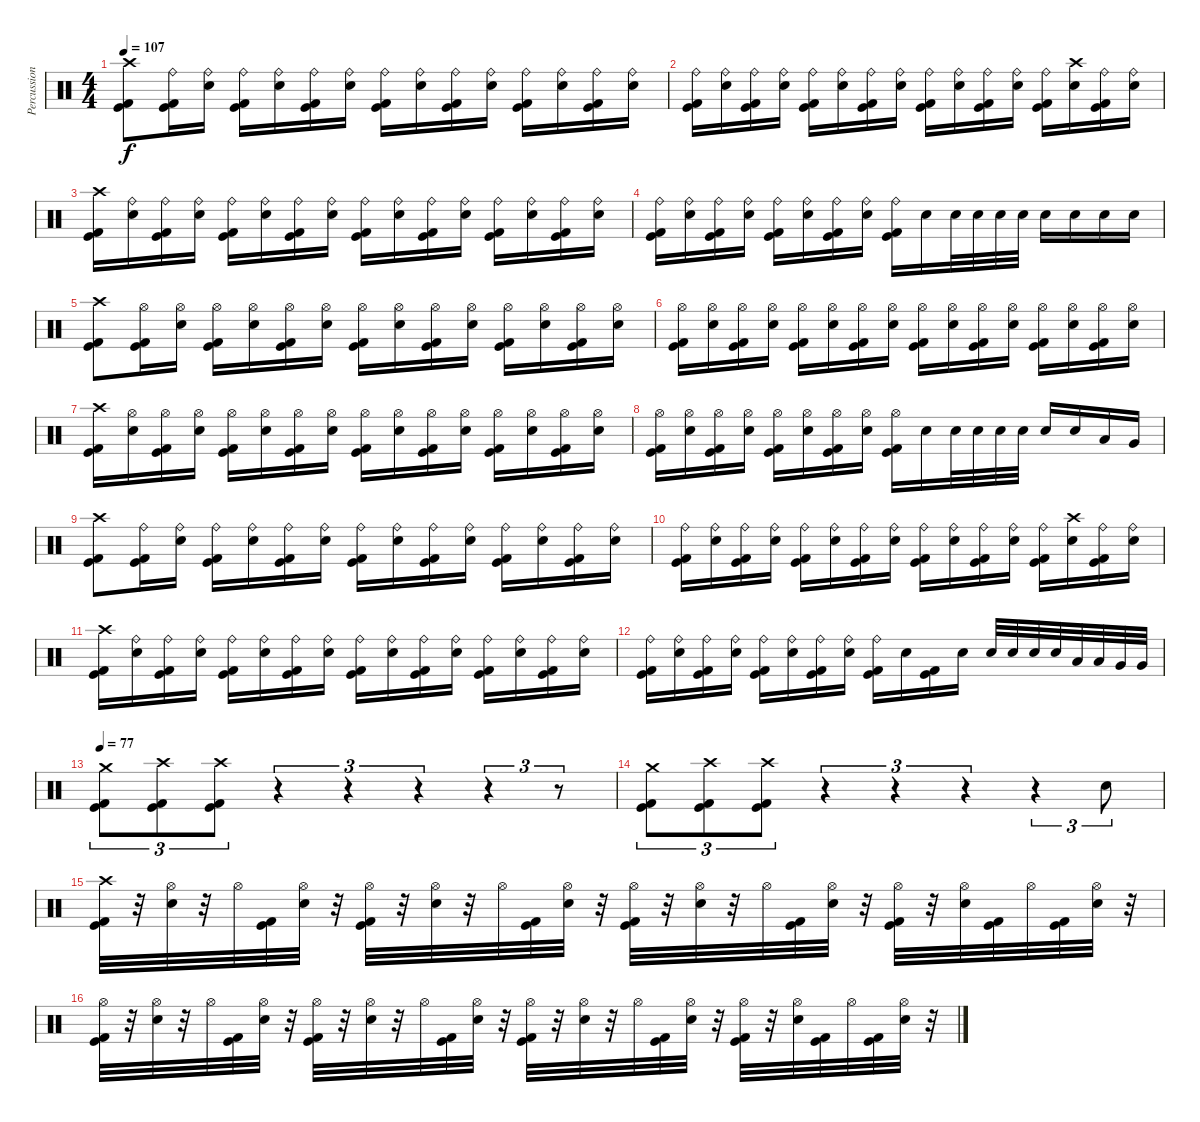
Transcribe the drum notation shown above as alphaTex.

\track ("Percussion" "Percussion") {instrument percussion}
\staff {score}
\articulation defaults
\ts (4 4)
\tempo 107
\clef neutral
\ks c
("Crash high (hit)" "Kick (hit)" "Kick (hit) 2").8{dy f} ("Ride (bell)" "Kick (hit)" "Kick (hit) 2").16 ("Ride (bell)" "Electric Snare (hit)").16 ("Ride (bell)" "Kick (hit)" "Kick (hit) 2").16 ("Ride (bell)" "Electric Snare (hit)").16 ("Ride (bell)" "Kick (hit)" "Kick (hit) 2").16 ("Ride (bell)" "Electric Snare (hit)").16 ("Ride (bell)" "Kick (hit)" "Kick (hit) 2").16 ("Ride (bell)" "Electric Snare (hit)").16 ("Ride (bell)" "Kick (hit)" "Kick (hit) 2").16 ("Ride (bell)" "Electric Snare (hit)").16 ("Ride (bell)" "Kick (hit)" "Kick (hit) 2").16 ("Ride (bell)" "Electric Snare (hit)").16 ("Ride (bell)" "Kick (hit)" "Kick (hit) 2").16 ("Ride (bell)" "Electric Snare (hit)").16 |
("Ride (bell)" "Kick (hit)" "Kick (hit) 2").16 ("Ride (bell)" "Electric Snare (hit)").16 ("Ride (bell)" "Kick (hit)" "Kick (hit) 2").16 ("Ride (bell)" "Electric Snare (hit)").16 ("Ride (bell)" "Kick (hit)" "Kick (hit) 2").16 ("Ride (bell)" "Electric Snare (hit)").16 ("Ride (bell)" "Kick (hit)" "Kick (hit) 2").16 ("Ride (bell)" "Electric Snare (hit)").16 ("Ride (bell)" "Kick (hit)" "Kick (hit) 2").16 ("Ride (bell)" "Electric Snare (hit)").16 ("Ride (bell)" "Kick (hit)" "Kick (hit) 2").16 ("Ride (bell)" "Electric Snare (hit)").16 ("Ride (bell)" "Kick (hit)" "Kick (hit) 2").16 ("Crash high (hit)" "Electric Snare (hit)").16 ("Ride (bell)" "Kick (hit)" "Kick (hit) 2").16 ("Ride (bell)" "Electric Snare (hit)").16 |
("Crash high (hit)" "Kick (hit)" "Kick (hit) 2").16 ("Ride (bell)" "Electric Snare (hit)").16 ("Ride (bell)" "Kick (hit)" "Kick (hit) 2").16 ("Ride (bell)" "Electric Snare (hit)").16 ("Ride (bell)" "Kick (hit)" "Kick (hit) 2").16 ("Ride (bell)" "Electric Snare (hit)").16 ("Ride (bell)" "Kick (hit)" "Kick (hit) 2").16 ("Ride (bell)" "Electric Snare (hit)").16 ("Ride (bell)" "Kick (hit)" "Kick (hit) 2").16 ("Ride (bell)" "Electric Snare (hit)").16 ("Ride (bell)" "Kick (hit)" "Kick (hit) 2").16 ("Ride (bell)" "Electric Snare (hit)").16 ("Ride (bell)" "Kick (hit)" "Kick (hit) 2").16 ("Ride (bell)" "Electric Snare (hit)").16 ("Ride (bell)" "Kick (hit)" "Kick (hit) 2").16 ("Ride (bell)" "Electric Snare (hit)").16 |
("Ride (bell)" "Kick (hit)" "Kick (hit) 2").16 ("Ride (bell)" "Electric Snare (hit)").16 ("Ride (bell)" "Kick (hit)" "Kick (hit) 2").16 ("Ride (bell)" "Electric Snare (hit)").16 ("Ride (bell)" "Kick (hit)" "Kick (hit) 2").16 ("Ride (bell)" "Electric Snare (hit)").16 ("Ride (bell)" "Kick (hit)" "Kick (hit) 2").16 ("Ride (bell)" "Electric Snare (hit)").16 ("Ride (bell)" "Kick (hit)" "Kick (hit) 2").16 "Electric Snare (hit)".16 "Electric Snare (hit)".32 "Electric Snare (hit)".32 "Electric Snare (hit)".32 "Electric Snare (hit)".32 "Electric Snare (hit)".16 "Electric Snare (hit)".16 "Electric Snare (hit)".16 "Electric Snare (hit)".16 |
("Crash high (hit)" "Kick (hit)" "Kick (hit) 2").8 ("Hi-Hat (open)" "Kick (hit)" "Kick (hit) 2").16 ("Hi-Hat (open)" "Electric Snare (hit)").16 ("Hi-Hat (open)" "Kick (hit)" "Kick (hit) 2").16 ("Hi-Hat (open)" "Electric Snare (hit)").16 ("Hi-Hat (open)" "Kick (hit)" "Kick (hit) 2").16 ("Hi-Hat (open)" "Electric Snare (hit)").16 ("Hi-Hat (open)" "Kick (hit)" "Kick (hit) 2").16 ("Hi-Hat (open)" "Electric Snare (hit)").16 ("Hi-Hat (open)" "Kick (hit)" "Kick (hit) 2").16 ("Hi-Hat (open)" "Electric Snare (hit)").16 ("Hi-Hat (open)" "Kick (hit)" "Kick (hit) 2").16 ("Hi-Hat (open)" "Electric Snare (hit)").16 ("Hi-Hat (open)" "Kick (hit)" "Kick (hit) 2").16 ("Hi-Hat (open)" "Electric Snare (hit)").16 |
("Hi-Hat (open)" "Kick (hit)" "Kick (hit) 2").16 ("Hi-Hat (open)" "Electric Snare (hit)").16 ("Hi-Hat (open)" "Kick (hit)" "Kick (hit) 2").16 ("Hi-Hat (open)" "Electric Snare (hit)").16 ("Hi-Hat (open)" "Kick (hit)" "Kick (hit) 2").16 ("Hi-Hat (open)" "Electric Snare (hit)").16 ("Hi-Hat (open)" "Kick (hit)" "Kick (hit) 2").16 ("Hi-Hat (open)" "Electric Snare (hit)").16 ("Hi-Hat (open)" "Kick (hit)" "Kick (hit) 2").16 ("Hi-Hat (open)" "Electric Snare (hit)").16 ("Hi-Hat (open)" "Kick (hit)" "Kick (hit) 2").16 ("Hi-Hat (open)" "Electric Snare (hit)").16 ("Hi-Hat (open)" "Kick (hit)" "Kick (hit) 2").16 ("Hi-Hat (open)" "Electric Snare (hit)").16 ("Hi-Hat (open)" "Kick (hit)" "Kick (hit) 2").16 ("Hi-Hat (open)" "Electric Snare (hit)").16 |
("Crash high (hit)" "Kick (hit)" "Kick (hit) 2").16 ("Hi-Hat (open)" "Electric Snare (hit)").16 ("Hi-Hat (open)" "Kick (hit)" "Kick (hit) 2").16 ("Hi-Hat (open)" "Electric Snare (hit)").16 ("Hi-Hat (open)" "Kick (hit)" "Kick (hit) 2").16 ("Hi-Hat (open)" "Electric Snare (hit)").16 ("Hi-Hat (open)" "Kick (hit)" "Kick (hit) 2").16 ("Hi-Hat (open)" "Electric Snare (hit)").16 ("Hi-Hat (open)" "Kick (hit)" "Kick (hit) 2").16 ("Hi-Hat (open)" "Electric Snare (hit)").16 ("Hi-Hat (open)" "Kick (hit)" "Kick (hit) 2").16 ("Hi-Hat (open)" "Electric Snare (hit)").16 ("Hi-Hat (open)" "Kick (hit)" "Kick (hit) 2").16 ("Hi-Hat (open)" "Electric Snare (hit)").16 ("Hi-Hat (open)" "Kick (hit)" "Kick (hit) 2").16 ("Hi-Hat (open)" "Electric Snare (hit)").16 |
("Hi-Hat (open)" "Kick (hit)" "Kick (hit) 2").16 ("Hi-Hat (open)" "Electric Snare (hit)").16 ("Hi-Hat (open)" "Kick (hit)" "Kick (hit) 2").16 ("Hi-Hat (open)" "Electric Snare (hit)").16 ("Hi-Hat (open)" "Kick (hit)" "Kick (hit) 2").16 ("Hi-Hat (open)" "Electric Snare (hit)").16 ("Hi-Hat (open)" "Kick (hit)" "Kick (hit) 2").16 ("Hi-Hat (open)" "Electric Snare (hit)").16 ("Hi-Hat (open)" "Kick (hit)" "Kick (hit) 2").16 "Electric Snare (hit)".16 "Electric Snare (hit)".32 "Electric Snare (hit)".32 "Electric Snare (hit)".32 "Electric Snare (hit)".32 "Electric Snare (hit)".16 "Electric Snare (hit)".16 "Low Tom (hit)".16 "Very Low Tom (hit)".16 |
("Crash high (hit)" "Kick (hit)" "Kick (hit) 2").8 ("Ride (bell)" "Kick (hit)" "Kick (hit) 2").16 ("Ride (bell)" "Electric Snare (hit)").16 ("Ride (bell)" "Kick (hit)" "Kick (hit) 2").16 ("Ride (bell)" "Electric Snare (hit)").16 ("Ride (bell)" "Kick (hit)" "Kick (hit) 2").16 ("Ride (bell)" "Electric Snare (hit)").16 ("Ride (bell)" "Kick (hit)" "Kick (hit) 2").16 ("Ride (bell)" "Electric Snare (hit)").16 ("Ride (bell)" "Kick (hit)" "Kick (hit) 2").16 ("Ride (bell)" "Electric Snare (hit)").16 ("Ride (bell)" "Kick (hit)" "Kick (hit) 2").16 ("Ride (bell)" "Electric Snare (hit)").16 ("Ride (bell)" "Kick (hit)" "Kick (hit) 2").16 ("Ride (bell)" "Electric Snare (hit)").16 |
("Ride (bell)" "Kick (hit)" "Kick (hit) 2").16 ("Ride (bell)" "Electric Snare (hit)").16 ("Ride (bell)" "Kick (hit)" "Kick (hit) 2").16 ("Ride (bell)" "Electric Snare (hit)").16 ("Ride (bell)" "Kick (hit)" "Kick (hit) 2").16 ("Ride (bell)" "Electric Snare (hit)").16 ("Ride (bell)" "Kick (hit)" "Kick (hit) 2").16 ("Ride (bell)" "Electric Snare (hit)").16 ("Ride (bell)" "Kick (hit)" "Kick (hit) 2").16 ("Ride (bell)" "Electric Snare (hit)").16 ("Ride (bell)" "Kick (hit)" "Kick (hit) 2").16 ("Ride (bell)" "Electric Snare (hit)").16 ("Ride (bell)" "Kick (hit)" "Kick (hit) 2").16 ("Crash high (hit)" "Electric Snare (hit)").16 ("Ride (bell)" "Kick (hit)" "Kick (hit) 2").16 ("Ride (bell)" "Electric Snare (hit)").16 |
("Crash high (hit)" "Kick (hit)" "Kick (hit) 2").16 ("Ride (bell)" "Electric Snare (hit)").16 ("Ride (bell)" "Kick (hit)" "Kick (hit) 2").16 ("Ride (bell)" "Electric Snare (hit)").16 ("Ride (bell)" "Kick (hit)" "Kick (hit) 2").16 ("Ride (bell)" "Electric Snare (hit)").16 ("Ride (bell)" "Kick (hit)" "Kick (hit) 2").16 ("Ride (bell)" "Electric Snare (hit)").16 ("Ride (bell)" "Kick (hit)" "Kick (hit) 2").16 ("Ride (bell)" "Electric Snare (hit)").16 ("Ride (bell)" "Kick (hit)" "Kick (hit) 2").16 ("Ride (bell)" "Electric Snare (hit)").16 ("Ride (bell)" "Kick (hit)" "Kick (hit) 2").16 ("Ride (bell)" "Electric Snare (hit)").16 ("Ride (bell)" "Kick (hit)" "Kick (hit) 2").16 ("Ride (bell)" "Electric Snare (hit)").16 |
("Ride (bell)" "Kick (hit)" "Kick (hit) 2").16 ("Ride (bell)" "Electric Snare (hit)").16 ("Ride (bell)" "Kick (hit)" "Kick (hit) 2").16 ("Ride (bell)" "Electric Snare (hit)").16 ("Ride (bell)" "Kick (hit)" "Kick (hit) 2").16 ("Ride (bell)" "Electric Snare (hit)").16 ("Ride (bell)" "Kick (hit)" "Kick (hit) 2").16 ("Ride (bell)" "Electric Snare (hit)").16 ("Ride (bell)" "Kick (hit)" "Kick (hit) 2").16 "Electric Snare (hit)".16 ("Kick (hit)" "Kick (hit) 2").16 "Electric Snare (hit)".16 "Electric Snare (hit)".32 "Electric Snare (hit)".32 "Electric Snare (hit)".32 "Electric Snare (hit)".32 "Low Tom (hit)".32 "Low Tom (hit)".32 "Very Low Tom (hit)".32 "Very Low Tom (hit)".32 |
\tempo 77
("Crash medium (hit)" "Kick (hit)" "Kick (hit) 2").8{tu (3 2)} ("Crash high (hit)" "Kick (hit)" "Kick (hit) 2").8{tu (3 2)} ("Crash high (hit)" "Kick (hit)" "Kick (hit) 2").8{tu (3 2)} r.4{tu (3 2)} r.4{tu (3 2)} r.4{tu (3 2)} r.4{tu (3 2)} r.8{tu (3 2)} |
("Crash medium (hit)" "Kick (hit)" "Kick (hit) 2").8{tu (3 2)} ("Crash high (hit)" "Kick (hit)" "Kick (hit) 2").8{tu (3 2)} ("Crash high (hit)" "Kick (hit)" "Kick (hit) 2").8{tu (3 2)} r.4{tu (3 2)} r.4{tu (3 2)} r.4{tu (3 2)} r.4{tu (3 2)} "Electric Snare (hit)".8{tu (3 2)} |
("Crash high (hit)" "Kick (hit)" "Kick (hit) 2").32 r.32 ("Hi-Hat (open)" "Electric Snare (hit)").32 r.32 "Hi-Hat (open)".32 ("Kick (hit)" "Kick (hit) 2").32 ("Hi-Hat (open)" "Electric Snare (hit)").32 r.32 ("Hi-Hat (open)" "Kick (hit)" "Kick (hit) 2").32 r.32 ("Hi-Hat (open)" "Electric Snare (hit)").32 r.32 "Hi-Hat (open)".32 ("Kick (hit)" "Kick (hit) 2").32 ("Hi-Hat (open)" "Electric Snare (hit)").32 r.32 ("Hi-Hat (open)" "Kick (hit)" "Kick (hit) 2").32 r.32 ("Hi-Hat (open)" "Electric Snare (hit)").32 r.32 "Hi-Hat (open)".32 ("Kick (hit)" "Kick (hit) 2").32 ("Hi-Hat (open)" "Electric Snare (hit)").32 r.32 ("Hi-Hat (open)" "Kick (hit)" "Kick (hit) 2").32 r.32 ("Hi-Hat (open)" "Electric Snare (hit)").32 ("Kick (hit)" "Kick (hit) 2").32 "Hi-Hat (open)".32 ("Kick (hit)" "Kick (hit) 2").32 ("Hi-Hat (open)" "Electric Snare (hit)").32 r.32 |
("Hi-Hat (open)" "Kick (hit)" "Kick (hit) 2").32 r.32 ("Hi-Hat (open)" "Electric Snare (hit)").32 r.32 "Hi-Hat (open)".32 ("Kick (hit)" "Kick (hit) 2").32 ("Hi-Hat (open)" "Electric Snare (hit)").32 r.32 ("Hi-Hat (open)" "Kick (hit)" "Kick (hit) 2").32 r.32 ("Hi-Hat (open)" "Electric Snare (hit)").32 r.32 "Hi-Hat (open)".32 ("Kick (hit)" "Kick (hit) 2").32 ("Hi-Hat (open)" "Electric Snare (hit)").32 r.32 ("Hi-Hat (open)" "Kick (hit)" "Kick (hit) 2").32 r.32 ("Hi-Hat (open)" "Electric Snare (hit)").32 r.32 "Hi-Hat (open)".32 ("Kick (hit)" "Kick (hit) 2").32 ("Hi-Hat (open)" "Electric Snare (hit)").32 r.32 ("Hi-Hat (open)" "Kick (hit)" "Kick (hit) 2").32 r.32 ("Hi-Hat (open)" "Electric Snare (hit)").32 ("Kick (hit)" "Kick (hit) 2").32 "Hi-Hat (open)".32 ("Kick (hit)" "Kick (hit) 2").32 ("Hi-Hat (open)" "Electric Snare (hit)").32 r.32
